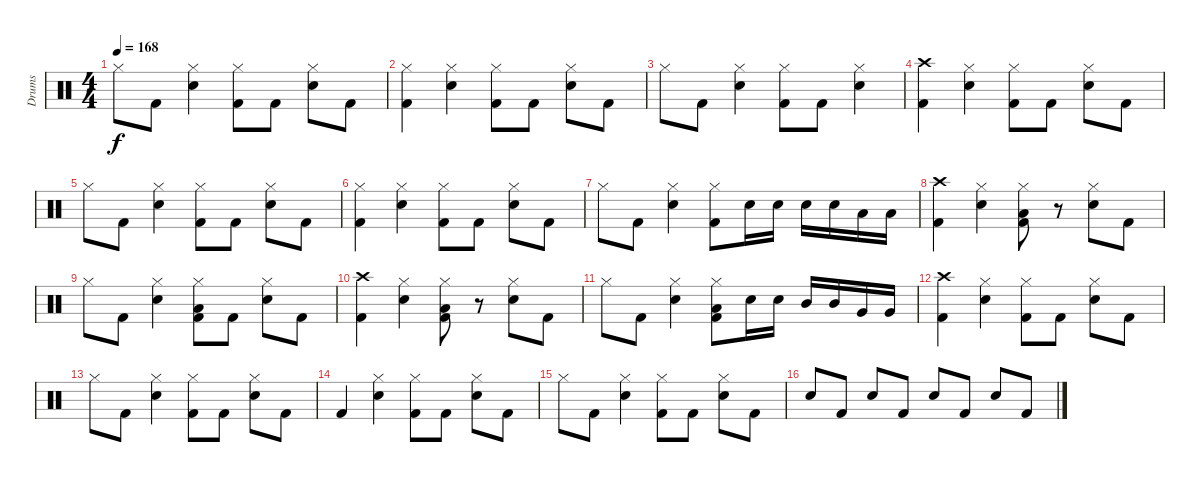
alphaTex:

\track ("Drums" "Drums") {instrument percussion}
\staff {score}
\articulation defaults
\ts (4 4)
\tempo 168
\clef neutral
\ks c "Hi-Hat (closed)".8{dy f} "Kick (hit) 2".8
("Hi-Hat (closed)" "Electric Snare (hit)").4 ("Hi-Hat (closed)" "Kick (hit) 2").8 "Kick (hit) 2".8 ("Hi-Hat (closed)" "Electric Snare (hit)").8 "Kick (hit) 2".8 |
("Hi-Hat (closed)" "Kick (hit) 2").4 ("Hi-Hat (closed)" "Electric Snare (hit)").4 ("Hi-Hat (closed)" "Kick (hit) 2").8 "Kick (hit) 2".8 ("Hi-Hat (closed)" "Electric Snare (hit)").8 "Kick (hit) 2".8 |
"Hi-Hat (closed)".8 "Kick (hit) 2".8 ("Hi-Hat (closed)" "Electric Snare (hit)").4 ("Hi-Hat (closed)" "Kick (hit) 2").8 "Kick (hit) 2".8 ("Hi-Hat (closed)" "Electric Snare (hit)").4 |
("Crash high (hit)" "Kick (hit) 2").4 ("Hi-Hat (closed)" "Electric Snare (hit)").4 ("Hi-Hat (closed)" "Kick (hit) 2").8 "Kick (hit) 2".8 ("Hi-Hat (closed)" "Electric Snare (hit)").8 "Kick (hit) 2".8 |
"Hi-Hat (closed)".8 "Kick (hit) 2".8 ("Hi-Hat (closed)" "Electric Snare (hit)").4 ("Hi-Hat (closed)" "Kick (hit) 2").8 "Kick (hit) 2".8 ("Hi-Hat (closed)" "Electric Snare (hit)").8 "Kick (hit) 2".8 |
("Hi-Hat (closed)" "Kick (hit) 2").4 ("Hi-Hat (closed)" "Electric Snare (hit)").4 ("Hi-Hat (closed)" "Kick (hit) 2").8 "Kick (hit) 2".8 ("Hi-Hat (closed)" "Electric Snare (hit)").8 "Kick (hit) 2".8 |
"Hi-Hat (closed)".8 "Kick (hit) 2".8 ("Hi-Hat (closed)" "Electric Snare (hit)").4 ("Hi-Hat (closed)" "Kick (hit) 2").8 "Electric Snare (hit)".16 "Electric Snare (hit)".16 "Electric Snare (hit)".16 "Electric Snare (hit)".16 "Low Tom (hit)".16 "Low Tom (hit)".16 |
("Crash high (hit)" "Kick (hit) 2").4 ("Hi-Hat (closed)" "Electric Snare (hit)").4 ("Hi-Hat (closed)" "Low Tom (hit)" "Kick (hit) 2").8 r.8 ("Hi-Hat (closed)" "Electric Snare (hit)").8 "Kick (hit) 2".8 |
"Hi-Hat (closed)".8 "Kick (hit) 2".8 ("Hi-Hat (closed)" "Electric Snare (hit)").4 ("Hi-Hat (closed)" "Low Tom (hit)" "Kick (hit) 2").8 "Kick (hit) 2".8 ("Hi-Hat (closed)" "Electric Snare (hit)").8 "Kick (hit) 2".8 |
("Crash high (hit)" "Kick (hit) 2").4 ("Hi-Hat (closed)" "Electric Snare (hit)").4 ("Hi-Hat (closed)" "Low Tom (hit)" "Kick (hit) 2").8 r.8 ("Hi-Hat (closed)" "Electric Snare (hit)").8 "Kick (hit) 2".8 |
"Hi-Hat (closed)".8 "Kick (hit) 2".8 ("Hi-Hat (closed)" "Electric Snare (hit)").4 ("Hi-Hat (closed)" "Low Tom (hit)" "Kick (hit) 2").8 "Electric Snare (hit)".16 "Electric Snare (hit)".16 "Mid Tom (hit)".16 "Mid Tom (hit)".16 "Very Low Tom (hit)".16 "Very Low Tom (hit)".16 |
("Crash high (hit)" "Kick (hit) 2").4 ("Hi-Hat (closed)" "Electric Snare (hit)").4 ("Hi-Hat (closed)" "Kick (hit) 2").8 "Kick (hit) 2".8 ("Hi-Hat (closed)" "Electric Snare (hit)").8 "Kick (hit) 2".8 |
"Hi-Hat (closed)".8 "Kick (hit) 2".8 ("Hi-Hat (closed)" "Electric Snare (hit)").4 ("Hi-Hat (closed)" "Kick (hit) 2").8 "Kick (hit) 2".8 ("Hi-Hat (closed)" "Electric Snare (hit)").8 "Kick (hit) 2".8 |
"Kick (hit) 2".4 ("Hi-Hat (closed)" "Electric Snare (hit)").4 ("Hi-Hat (closed)" "Kick (hit) 2").8 "Kick (hit) 2".8 ("Hi-Hat (closed)" "Electric Snare (hit)").8 "Kick (hit) 2".8 |
"Hi-Hat (closed)".8 "Kick (hit) 2".8 ("Hi-Hat (closed)" "Electric Snare (hit)").4 ("Hi-Hat (closed)" "Kick (hit) 2").8 "Kick (hit) 2".8 ("Hi-Hat (closed)" "Electric Snare (hit)").8 "Kick (hit) 2".8 |
"Electric Snare (hit)".8 "Kick (hit) 2".8 "Electric Snare (hit)".8 "Kick (hit) 2".8 "Electric Snare (hit)".8 "Kick (hit) 2".8 "Electric Snare (hit)".8 "Kick (hit) 2".8
